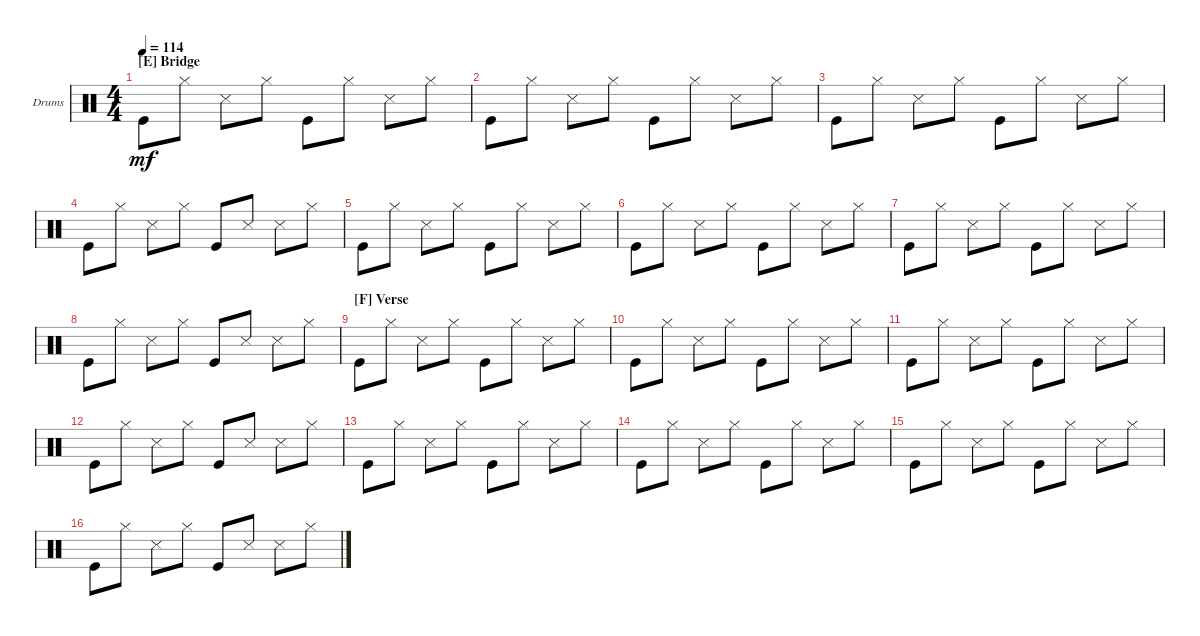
\defaultSystemsLayout 4
\bracketExtendMode groupsimilarinstruments
\firstSystemTrackNameOrientation horizontal
\otherSystemsTrackNameOrientation horizontal
\track ("Drumkit" "Drums") {instrument percussion}
\staff {score}
\articulation defaults
\ts (4 4)
\section ("E" "Bridge")
\tempo 114
\clef neutral
\ks c "Kick (hit)".8{dy mf} "Hi-Hat (closed)".8 "Snare (side stick) 3".8 "Hi-Hat (closed)".8 "Kick (hit)".8 "Hi-Hat (closed)".8 "Snare (side stick) 3".8 "Hi-Hat (closed)".8
|
"Kick (hit)".8 "Hi-Hat (closed)".8 "Snare (side stick) 3".8 "Hi-Hat (closed)".8 "Kick (hit)".8 "Hi-Hat (closed)".8 "Snare (side stick) 3".8 "Hi-Hat (closed)".8 |
"Kick (hit)".8 "Hi-Hat (closed)".8 "Snare (side stick) 3".8 "Hi-Hat (closed)".8 "Kick (hit)".8 "Hi-Hat (closed)".8 "Snare (side stick) 3".8 "Hi-Hat (closed)".8 |
"Kick (hit)".8 "Hi-Hat (closed)".8 "Snare (side stick) 3".8 "Hi-Hat (closed)".8 "Kick (hit)".8 "Snare (side stick) 3".8 "Snare (side stick) 3".8 "Hi-Hat (closed)".8 |
"Kick (hit)".8 "Hi-Hat (closed)".8 "Snare (side stick) 3".8 "Hi-Hat (closed)".8 "Kick (hit)".8 "Hi-Hat (closed)".8 "Snare (side stick) 3".8 "Hi-Hat (closed)".8 |
"Kick (hit)".8 "Hi-Hat (closed)".8 "Snare (side stick) 3".8 "Hi-Hat (closed)".8 "Kick (hit)".8 "Hi-Hat (closed)".8 "Snare (side stick) 3".8 "Hi-Hat (closed)".8 |
"Kick (hit)".8 "Hi-Hat (closed)".8 "Snare (side stick) 3".8 "Hi-Hat (closed)".8 "Kick (hit)".8 "Hi-Hat (closed)".8 "Snare (side stick) 3".8 "Hi-Hat (closed)".8 |
"Kick (hit)".8 "Hi-Hat (closed)".8 "Snare (side stick) 3".8 "Hi-Hat (closed)".8 "Kick (hit)".8 "Snare (side stick) 3".8 "Snare (side stick) 3".8 "Hi-Hat (closed)".8 |
\section ("F" "Verse")
"Kick (hit)".8 "Hi-Hat (closed)".8 "Snare (side stick) 3".8 "Hi-Hat (closed)".8 "Kick (hit)".8 "Hi-Hat (closed)".8 "Snare (side stick) 3".8 "Hi-Hat (closed)".8 |
"Kick (hit)".8 "Hi-Hat (closed)".8 "Snare (side stick) 3".8 "Hi-Hat (closed)".8 "Kick (hit)".8 "Hi-Hat (closed)".8 "Snare (side stick) 3".8 "Hi-Hat (closed)".8 |
"Kick (hit)".8 "Hi-Hat (closed)".8 "Snare (side stick) 3".8 "Hi-Hat (closed)".8 "Kick (hit)".8 "Hi-Hat (closed)".8 "Snare (side stick) 3".8 "Hi-Hat (closed)".8 |
"Kick (hit)".8 "Hi-Hat (closed)".8 "Snare (side stick) 3".8 "Hi-Hat (closed)".8 "Kick (hit)".8 "Snare (side stick) 3".8 "Snare (side stick) 3".8 "Hi-Hat (closed)".8 |
"Kick (hit)".8 "Hi-Hat (closed)".8 "Snare (side stick) 3".8 "Hi-Hat (closed)".8 "Kick (hit)".8 "Hi-Hat (closed)".8 "Snare (side stick) 3".8 "Hi-Hat (closed)".8 |
"Kick (hit)".8 "Hi-Hat (closed)".8 "Snare (side stick) 3".8 "Hi-Hat (closed)".8 "Kick (hit)".8 "Hi-Hat (closed)".8 "Snare (side stick) 3".8 "Hi-Hat (closed)".8 |
"Kick (hit)".8 "Hi-Hat (closed)".8 "Snare (side stick) 3".8 "Hi-Hat (closed)".8 "Kick (hit)".8 "Hi-Hat (closed)".8 "Snare (side stick) 3".8 "Hi-Hat (closed)".8 |
"Kick (hit)".8 "Hi-Hat (closed)".8 "Snare (side stick) 3".8 "Hi-Hat (closed)".8 "Kick (hit)".8 "Snare (side stick) 3".8 "Snare (side stick) 3".8 "Hi-Hat (closed)".8
